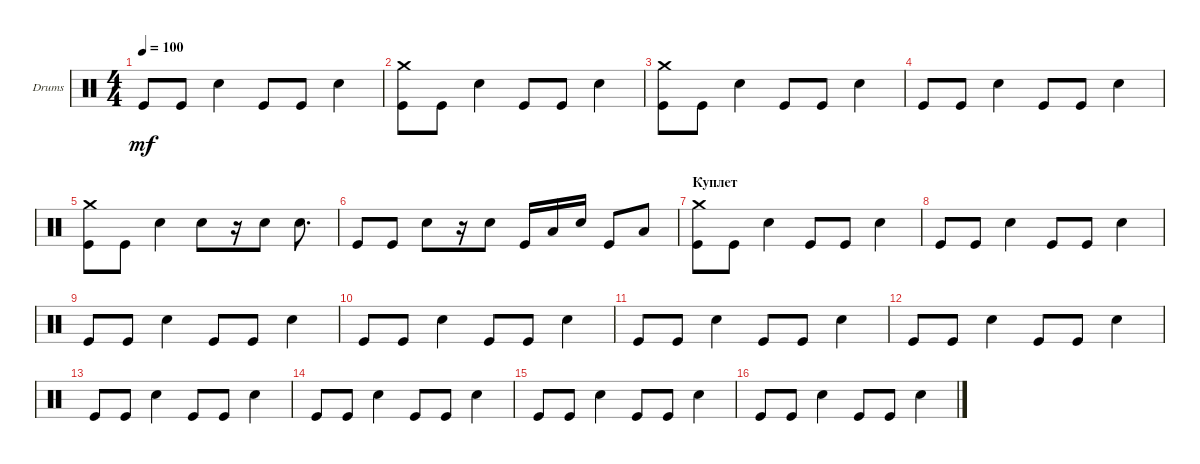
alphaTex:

\defaultSystemsLayout 4
\bracketExtendMode groupsimilarinstruments
\firstSystemTrackNameOrientation horizontal
\otherSystemsTrackNameOrientation horizontal
\track ("Е. Кулаков" "Drums") {instrument percussion}
\staff {score}
\articulation defaults
\ts (4 4)
\tempo 100
\clef neutral
\ks c "Kick (hit)".8{dy mf} "Kick (hit)".8 "Snare (hit) 2".4 "Kick (hit)".8 "Kick (hit)".8 "Snare (hit) 2".4
|
("Kick (hit)" "Crash medium (hit)").8 "Kick (hit)".8 "Snare (hit) 2".4 "Kick (hit)".8 "Kick (hit)".8 "Snare (hit) 2".4 |
("Kick (hit)" "Crash medium (hit)").8 "Kick (hit)".8 "Snare (hit) 2".4 "Kick (hit)".8 "Kick (hit)".8 "Snare (hit) 2".4 |
"Kick (hit)".8 "Kick (hit)".8 "Snare (hit) 2".4 "Kick (hit)".8 "Kick (hit)".8 "Snare (hit) 2".4 |
("Kick (hit)" "Crash medium (hit)").8 "Kick (hit)".8 "Snare (hit) 2".4 "Snare (hit) 2".8 r.16 "Snare (hit) 2".8 "Snare (hit) 2".8{d} |
"Kick (hit)".8 "Kick (hit)".8 "Snare (hit) 2".8 r.16 "Snare (hit) 2".8 "Kick (hit)".16 "Low Tom (hit)".16 "Snare (hit) 2".16 "Kick (hit)".8 "Low Tom (hit)".8 |
\section ("" "Куплет")
("Kick (hit)" "Crash medium (hit)").8 "Kick (hit)".8 "Snare (hit) 2".4 "Kick (hit)".8 "Kick (hit)".8 "Snare (hit) 2".4 |
"Kick (hit)".8 "Kick (hit)".8 "Snare (hit) 2".4 "Kick (hit)".8 "Kick (hit)".8 "Snare (hit) 2".4 |
"Kick (hit)".8 "Kick (hit)".8 "Snare (hit) 2".4 "Kick (hit)".8 "Kick (hit)".8 "Snare (hit) 2".4 |
"Kick (hit)".8 "Kick (hit)".8 "Snare (hit) 2".4 "Kick (hit)".8 "Kick (hit)".8 "Snare (hit) 2".4 |
"Kick (hit)".8 "Kick (hit)".8 "Snare (hit) 2".4 "Kick (hit)".8 "Kick (hit)".8 "Snare (hit) 2".4 |
"Kick (hit)".8 "Kick (hit)".8 "Snare (hit) 2".4 "Kick (hit)".8 "Kick (hit)".8 "Snare (hit) 2".4 |
"Kick (hit)".8 "Kick (hit)".8 "Snare (hit) 2".4 "Kick (hit)".8 "Kick (hit)".8 "Snare (hit) 2".4 |
"Kick (hit)".8 "Kick (hit)".8 "Snare (hit) 2".4 "Kick (hit)".8 "Kick (hit)".8 "Snare (hit) 2".4 |
"Kick (hit)".8 "Kick (hit)".8 "Snare (hit) 2".4 "Kick (hit)".8 "Kick (hit)".8 "Snare (hit) 2".4 |
"Kick (hit)".8 "Kick (hit)".8 "Snare (hit) 2".4 "Kick (hit)".8 "Kick (hit)".8 "Snare (hit) 2".4
